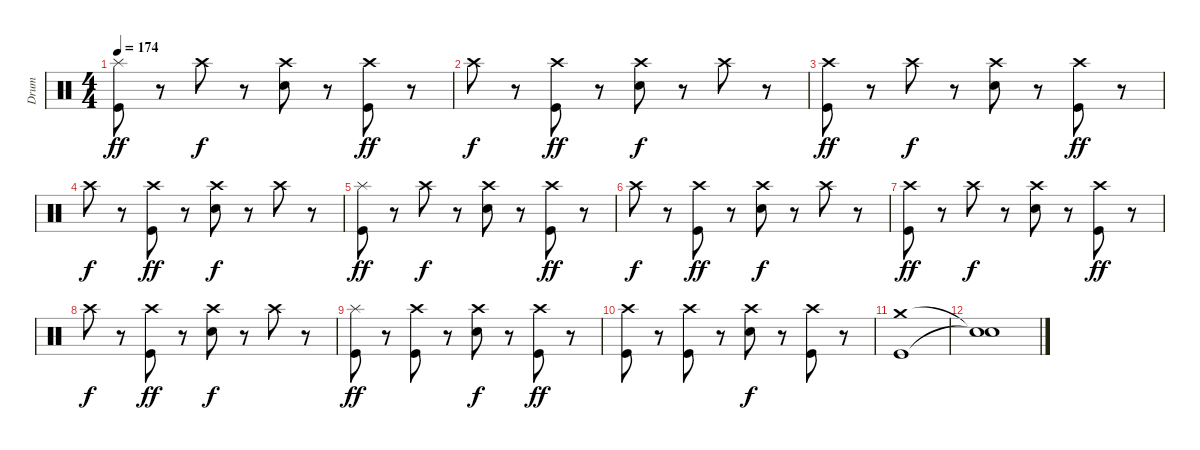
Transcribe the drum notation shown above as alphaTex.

\track ("Drum" "Drum") {instrument percussion}
\staff {score}
\articulation defaults
\ts (4 4)
\tempo 174
\clef neutral
\ks c
("Splash (hit)" "Kick (hit)").8{dy ff} r.8 "Crash high (hit)".8{dy f} r.8 ("Crash high (hit)" "Snare (hit) 2").8 r.8 ("Crash high (hit)" "Kick (hit)").8{dy ff} r.8 |
"Crash high (hit)".8{dy f} r.8 ("Crash high (hit)" "Kick (hit)").8{dy ff} r.8 ("Crash high (hit)" "Snare (hit) 2").8{dy f} r.8 "Crash high (hit)".8 r.8 |
("Crash high (hit)" "Kick (hit)").8{dy ff} r.8 "Crash high (hit)".8{dy f} r.8 ("Crash high (hit)" "Snare (hit) 2").8 r.8 ("Crash high (hit)" "Kick (hit)").8{dy ff} r.8 |
"Crash high (hit)".8{dy f} r.8 ("Crash high (hit)" "Kick (hit)").8{dy ff} r.8 ("Crash high (hit)" "Snare (hit) 2").8{dy f} r.8 "Crash high (hit)".8 r.8 |
("Splash (hit)" "Kick (hit)").8{dy ff} r.8 "Crash high (hit)".8{dy f} r.8 ("Crash high (hit)" "Snare (hit) 2").8 r.8 ("Crash high (hit)" "Kick (hit)").8{dy ff} r.8 |
"Crash high (hit)".8{dy f} r.8 ("Crash high (hit)" "Kick (hit)").8{dy ff} r.8 ("Crash high (hit)" "Snare (hit) 2").8{dy f} r.8 "Crash high (hit)".8 r.8 |
("Crash high (hit)" "Kick (hit)").8{dy ff} r.8 "Crash high (hit)".8{dy f} r.8 ("Crash high (hit)" "Snare (hit) 2").8 r.8 ("Crash high (hit)" "Kick (hit)").8{dy ff} r.8 |
"Crash high (hit)".8{dy f} r.8 ("Crash high (hit)" "Kick (hit)").8{dy ff} r.8 ("Crash high (hit)" "Snare (hit) 2").8{dy f} r.8 "Crash high (hit)".8 r.8 |
("Splash (hit)" "Kick (hit)").8{dy ff} r.8 ("Crash high (hit)" "Kick (hit)").8 r.8 ("Crash high (hit)" "Snare (hit) 2").8{dy f} r.8 ("Crash high (hit)" "Kick (hit)").8{dy ff} r.8 |
("Crash high (hit)" "Kick (hit)").8 r.8 ("Crash high (hit)" "Kick (hit)").8 r.8 ("Crash high (hit)" "Snare (hit) 2").8{dy f} r.8 ("Crash high (hit)" "Kick (hit)").8 r.8 |
("Crash medium (hit)" "Kick (hit)").1 |
("Snare (hit)"{t} "Snare (hit)"{t}).1
